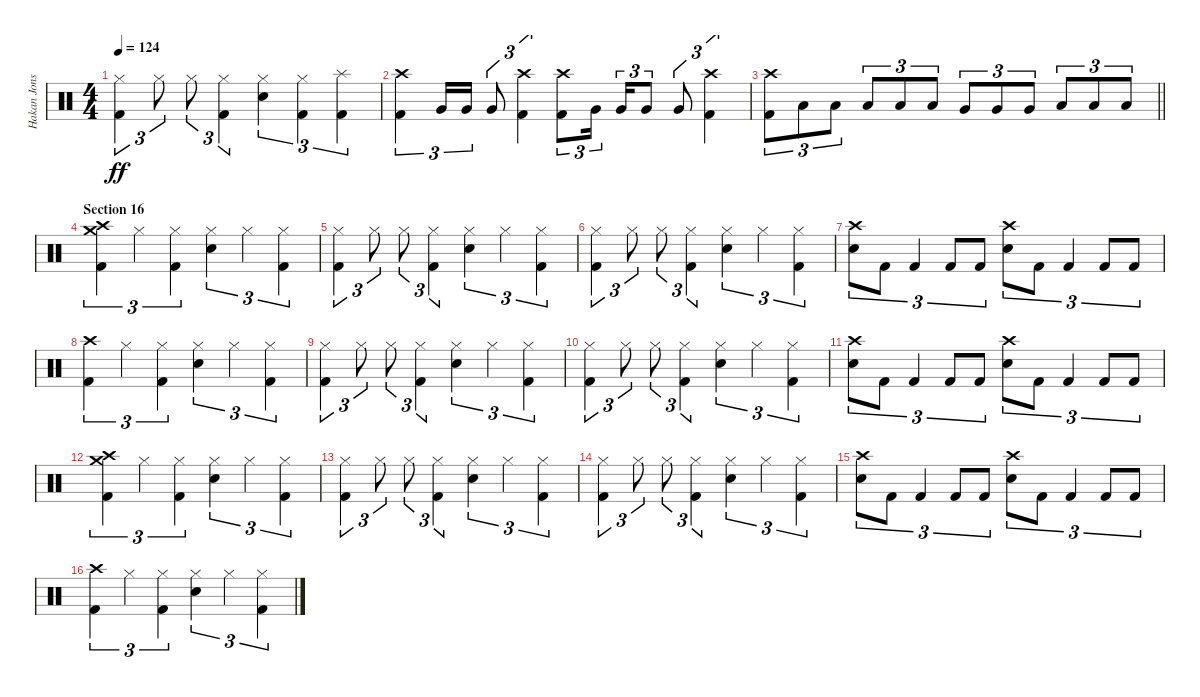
\track ("Hakan Jonsson" "Hakan Jons") {instrument percussion}
\staff {score}
\articulation defaults
\ts (4 4)
\tempo 124
\clef neutral
\ks c
("Hi-Hat (closed)" "Kick (hit) 2").4{tu (3 2) dy ff} "Hi-Hat (closed)".8{tu (3 2)} "Hi-Hat (closed)".8{tu (3 2)} ("Hi-Hat (closed)" "Kick (hit) 2").4{tu (3 2)} ("Hi-Hat (closed)" "Electric Snare (hit)").4{tu (3 2)} ("Hi-Hat (closed)" "Kick (hit) 2").4{tu (3 2)} ("Splash (hit)" "Kick (hit) 2").4{tu (3 2)} |
("Crash high (hit)" "Kick (hit) 2").4{tu (3 2)} "Very Low Tom (hit)".16{tu (3 2)} "Very Low Tom (hit)".16{tu (3 2)} "Very Low Tom (hit)".8{tu (3 2)} ("Crash high (hit)" "Kick (hit) 2").4{tu (3 2)} ("Crash high (hit)" "Kick (hit) 2").8{tu (3 2)} "Very Low Tom (hit)".16{tu (3 2) beam splitsecondary} "Very Low Tom (hit)".16{tu (3 2)} "Very Low Tom (hit)".8{tu (3 2)} "Very Low Tom (hit)".8{tu (3 2)} ("Crash high (hit)" "Kick (hit) 2").4{tu (3 2)} |
\barLineRight lightlight
("Crash high (hit)" "Kick (hit) 2").8{tu (3 2)} "Low Tom (hit)".8{tu (3 2)} "Low Tom (hit)".8{tu (3 2)} "Low Tom (hit)".8{tu (3 2)} "Low Tom (hit)".8{tu (3 2)} "Low Tom (hit)".8{tu (3 2)} "Very Low Tom (hit)".8{tu (3 2)} "Very Low Tom (hit)".8{tu (3 2)} "Very Low Tom (hit)".8{tu (3 2)} "Low Floor Tom (hit)".8{tu (3 2)} "Low Floor Tom (hit)".8{tu (3 2)} "Low Floor Tom (hit)".8{tu (3 2)} |
\section ("" "Section 16")
("Crash medium (hit)" "Crash high (hit)" "Kick (hit) 2").4{tu (3 2)} "Hi-Hat (closed)".4{tu (3 2)} ("Hi-Hat (closed)" "Kick (hit) 2").4{tu (3 2)} ("Hi-Hat (closed)" "Electric Snare (hit)").4{tu (3 2)} "Hi-Hat (closed)".4{tu (3 2)} ("Hi-Hat (closed)" "Kick (hit) 2").4{tu (3 2)} |
("Hi-Hat (closed)" "Kick (hit) 2").4{tu (3 2)} "Hi-Hat (closed)".8{tu (3 2)} "Hi-Hat (closed)".8{tu (3 2)} ("Hi-Hat (closed)" "Kick (hit) 2").4{tu (3 2)} ("Hi-Hat (closed)" "Electric Snare (hit)").4{tu (3 2)} "Hi-Hat (closed)".4{tu (3 2)} ("Hi-Hat (closed)" "Kick (hit) 2").4{tu (3 2)} |
("Hi-Hat (closed)" "Kick (hit) 2").4{tu (3 2)} "Hi-Hat (closed)".8{tu (3 2)} "Hi-Hat (closed)".8{tu (3 2)} ("Hi-Hat (closed)" "Kick (hit) 2").4{tu (3 2)} ("Hi-Hat (closed)" "Electric Snare (hit)").4{tu (3 2)} "Hi-Hat (closed)".4{tu (3 2)} ("Hi-Hat (closed)" "Kick (hit) 2").4{tu (3 2)} |
("Crash high (hit)" "Electric Snare (hit)").8{tu (3 2)} "Kick (hit) 2".8{tu (3 2)} "Kick (hit) 2".4{tu (3 2)} "Kick (hit) 2".8{tu (3 2)} "Kick (hit) 2".8{tu (3 2)} ("Crash high (hit)" "Electric Snare (hit)").8{tu (3 2)} "Kick (hit) 2".8{tu (3 2)} "Kick (hit) 2".4{tu (3 2)} "Kick (hit) 2".8{tu (3 2)} "Kick (hit) 2".8{tu (3 2)} |
("Crash high (hit)" "Kick (hit) 2").4{tu (3 2)} "Hi-Hat (closed)".4{tu (3 2)} ("Hi-Hat (closed)" "Kick (hit) 2").4{tu (3 2)} ("Hi-Hat (closed)" "Electric Snare (hit)").4{tu (3 2)} "Hi-Hat (closed)".4{tu (3 2)} ("Hi-Hat (closed)" "Kick (hit) 2").4{tu (3 2)} |
("Hi-Hat (closed)" "Kick (hit) 2").4{tu (3 2)} "Hi-Hat (closed)".8{tu (3 2)} "Hi-Hat (closed)".8{tu (3 2)} ("Hi-Hat (closed)" "Kick (hit) 2").4{tu (3 2)} ("Hi-Hat (closed)" "Electric Snare (hit)").4{tu (3 2)} "Hi-Hat (closed)".4{tu (3 2)} ("Hi-Hat (closed)" "Kick (hit) 2").4{tu (3 2)} |
("Hi-Hat (closed)" "Kick (hit) 2").4{tu (3 2)} "Hi-Hat (closed)".8{tu (3 2)} "Hi-Hat (closed)".8{tu (3 2)} ("Hi-Hat (closed)" "Kick (hit) 2").4{tu (3 2)} ("Hi-Hat (closed)" "Electric Snare (hit)").4{tu (3 2)} "Hi-Hat (closed)".4{tu (3 2)} ("Hi-Hat (closed)" "Kick (hit) 2").4{tu (3 2)} |
("Crash high (hit)" "Electric Snare (hit)").8{tu (3 2)} "Kick (hit) 2".8{tu (3 2)} "Kick (hit) 2".4{tu (3 2)} "Kick (hit) 2".8{tu (3 2)} "Kick (hit) 2".8{tu (3 2)} ("Crash high (hit)" "Electric Snare (hit)").8{tu (3 2)} "Kick (hit) 2".8{tu (3 2)} "Kick (hit) 2".4{tu (3 2)} "Kick (hit) 2".8{tu (3 2)} "Kick (hit) 2".8{tu (3 2)} |
("Crash medium (hit)" "Crash high (hit)" "Kick (hit) 2").4{tu (3 2)} "Hi-Hat (closed)".4{tu (3 2)} ("Hi-Hat (closed)" "Kick (hit) 2").4{tu (3 2)} ("Hi-Hat (closed)" "Electric Snare (hit)").4{tu (3 2)} "Hi-Hat (closed)".4{tu (3 2)} ("Hi-Hat (closed)" "Kick (hit) 2").4{tu (3 2)} |
("Hi-Hat (closed)" "Kick (hit) 2").4{tu (3 2)} "Hi-Hat (closed)".8{tu (3 2)} "Hi-Hat (closed)".8{tu (3 2)} ("Hi-Hat (closed)" "Kick (hit) 2").4{tu (3 2)} ("Hi-Hat (closed)" "Electric Snare (hit)").4{tu (3 2)} "Hi-Hat (closed)".4{tu (3 2)} ("Hi-Hat (closed)" "Kick (hit) 2").4{tu (3 2)} |
("Hi-Hat (closed)" "Kick (hit) 2").4{tu (3 2)} "Hi-Hat (closed)".8{tu (3 2)} "Hi-Hat (closed)".8{tu (3 2)} ("Hi-Hat (closed)" "Kick (hit) 2").4{tu (3 2)} ("Hi-Hat (closed)" "Electric Snare (hit)").4{tu (3 2)} "Hi-Hat (closed)".4{tu (3 2)} ("Hi-Hat (closed)" "Kick (hit) 2").4{tu (3 2)} |
("Crash high (hit)" "Electric Snare (hit)").8{tu (3 2)} "Kick (hit) 2".8{tu (3 2)} "Kick (hit) 2".4{tu (3 2)} "Kick (hit) 2".8{tu (3 2)} "Kick (hit) 2".8{tu (3 2)} ("Crash high (hit)" "Electric Snare (hit)").8{tu (3 2)} "Kick (hit) 2".8{tu (3 2)} "Kick (hit) 2".4{tu (3 2)} "Kick (hit) 2".8{tu (3 2)} "Kick (hit) 2".8{tu (3 2)} |
("Crash high (hit)" "Kick (hit) 2").4{tu (3 2)} "Hi-Hat (closed)".4{tu (3 2)} ("Hi-Hat (closed)" "Kick (hit) 2").4{tu (3 2)} ("Hi-Hat (closed)" "Electric Snare (hit)").4{tu (3 2)} "Hi-Hat (closed)".4{tu (3 2)} ("Hi-Hat (closed)" "Kick (hit) 2").4{tu (3 2)}
